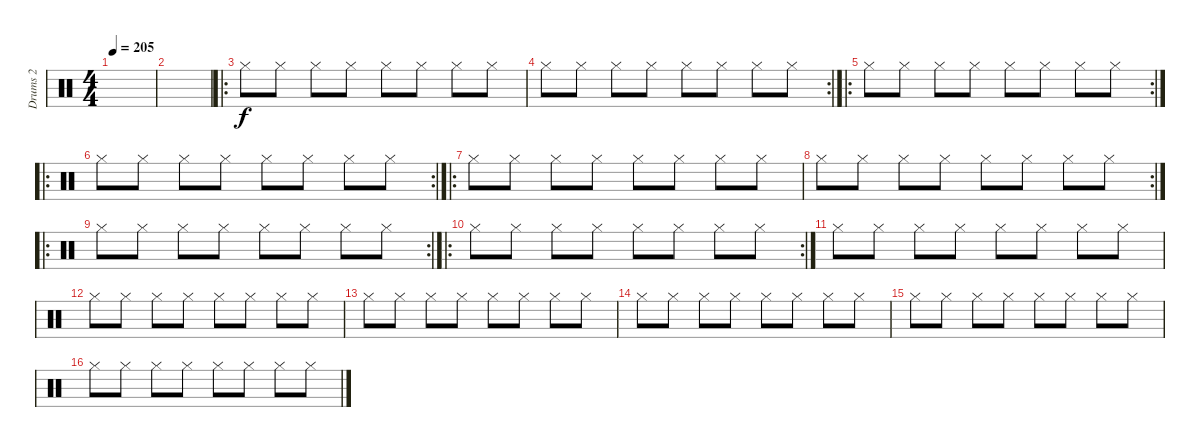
\track ("Drums 2" "Drums 2") {instrument percussion}
\staff {score}
\articulation defaults
\ts (4 4)
\tempo 205
\clef neutral
\ks c
|
|
\ro "Hi-Hat (closed)".8 "Hi-Hat (closed)".8 "Hi-Hat (closed)".8 "Hi-Hat (closed)".8 "Hi-Hat (closed)".8 "Hi-Hat (closed)".8 "Hi-Hat (closed)".8 "Hi-Hat (closed)".8
|
\rc 2 "Hi-Hat (closed)".8 "Hi-Hat (closed)".8 "Hi-Hat (closed)".8 "Hi-Hat (closed)".8 "Hi-Hat (closed)".8 "Hi-Hat (closed)".8 "Hi-Hat (closed)".8 "Hi-Hat (closed)".8
|
\ro
\rc 2 "Hi-Hat (closed)".8 "Hi-Hat (closed)".8 "Hi-Hat (closed)".8 "Hi-Hat (closed)".8 "Hi-Hat (closed)".8 "Hi-Hat (closed)".8 "Hi-Hat (closed)".8 "Hi-Hat (closed)".8
|
\ro
\rc 2 "Hi-Hat (closed)".8 "Hi-Hat (closed)".8 "Hi-Hat (closed)".8 "Hi-Hat (closed)".8 "Hi-Hat (closed)".8 "Hi-Hat (closed)".8 "Hi-Hat (closed)".8 "Hi-Hat (closed)".8
|
\ro "Hi-Hat (closed)".8 "Hi-Hat (closed)".8 "Hi-Hat (closed)".8 "Hi-Hat (closed)".8 "Hi-Hat (closed)".8 "Hi-Hat (closed)".8 "Hi-Hat (closed)".8 "Hi-Hat (closed)".8
|
\rc 2 "Hi-Hat (closed)".8 "Hi-Hat (closed)".8 "Hi-Hat (closed)".8 "Hi-Hat (closed)".8 "Hi-Hat (closed)".8 "Hi-Hat (closed)".8 "Hi-Hat (closed)".8 "Hi-Hat (closed)".8
|
\ro
\rc 2 "Hi-Hat (closed)".8 "Hi-Hat (closed)".8 "Hi-Hat (closed)".8 "Hi-Hat (closed)".8 "Hi-Hat (closed)".8 "Hi-Hat (closed)".8 "Hi-Hat (closed)".8 "Hi-Hat (closed)".8
|
\ro
\rc 2 "Hi-Hat (closed)".8 "Hi-Hat (closed)".8 "Hi-Hat (closed)".8 "Hi-Hat (closed)".8 "Hi-Hat (closed)".8 "Hi-Hat (closed)".8 "Hi-Hat (closed)".8 "Hi-Hat (closed)".8
|
"Hi-Hat (closed)".8 "Hi-Hat (closed)".8 "Hi-Hat (closed)".8 "Hi-Hat (closed)".8 "Hi-Hat (closed)".8 "Hi-Hat (closed)".8 "Hi-Hat (closed)".8 "Hi-Hat (closed)".8 |
"Hi-Hat (closed)".8 "Hi-Hat (closed)".8 "Hi-Hat (closed)".8 "Hi-Hat (closed)".8 "Hi-Hat (closed)".8 "Hi-Hat (closed)".8 "Hi-Hat (closed)".8 "Hi-Hat (closed)".8 |
"Hi-Hat (closed)".8 "Hi-Hat (closed)".8 "Hi-Hat (closed)".8 "Hi-Hat (closed)".8 "Hi-Hat (closed)".8 "Hi-Hat (closed)".8 "Hi-Hat (closed)".8 "Hi-Hat (closed)".8 |
"Hi-Hat (closed)".8 "Hi-Hat (closed)".8 "Hi-Hat (closed)".8 "Hi-Hat (closed)".8 "Hi-Hat (closed)".8 "Hi-Hat (closed)".8 "Hi-Hat (closed)".8 "Hi-Hat (closed)".8 |
"Hi-Hat (closed)".8 "Hi-Hat (closed)".8 "Hi-Hat (closed)".8 "Hi-Hat (closed)".8 "Hi-Hat (closed)".8 "Hi-Hat (closed)".8 "Hi-Hat (closed)".8 "Hi-Hat (closed)".8 |
"Hi-Hat (closed)".8 "Hi-Hat (closed)".8 "Hi-Hat (closed)".8 "Hi-Hat (closed)".8 "Hi-Hat (closed)".8 "Hi-Hat (closed)".8 "Hi-Hat (closed)".8 "Hi-Hat (closed)".8
